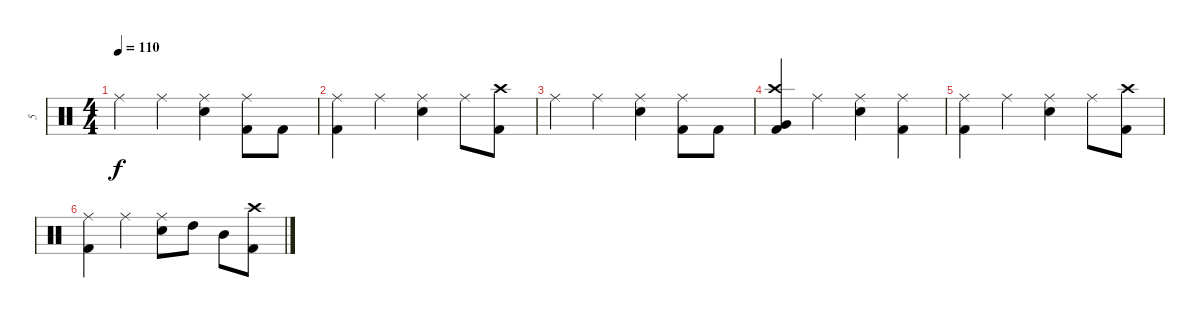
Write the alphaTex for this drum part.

\track ("5" "5") {instrument percussion}
\staff {score}
\articulation defaults
\ts (4 4)
\tempo 110
\clef neutral
\ks c "Ride (middle)".4{dy f} "Ride (middle)".4
("Ride (middle)" "Electric Snare (hit)").4 ("Ride (middle)" "Kick (hit) 2").8 "Kick (hit) 2".8 |
("Ride (middle)" "Kick (hit) 2").4 "Ride (middle)".4 ("Ride (middle)" "Electric Snare (hit)").4 "Ride (middle)".8 ("Crash high (hit)" "Kick (hit) 2").8 |
"Ride (middle)".4 "Ride (middle)".4 ("Ride (middle)" "Electric Snare (hit)").4 ("Ride (middle)" "Kick (hit) 2").8 "Kick (hit) 2".8 |
("Crash high (hit)" "Very Low Tom (hit)" "Kick (hit) 2").4 "Ride (middle)".4 ("Ride (middle)" "Electric Snare (hit)").4 ("Ride (middle)" "Kick (hit) 2").4 |
("Ride (middle)" "Kick (hit) 2").4 "Ride (middle)".4 ("Ride (middle)" "Electric Snare (hit)").4 "Ride (middle)".8 ("Crash high (hit)" "Kick (hit) 2").8 |
("Ride (middle)" "Kick (hit) 2").4 "Ride (middle)".4 ("Ride (middle)" "Electric Snare (hit)").8 "High Tom (hit)".8 "Mid Tom (hit)".8 ("Crash high (hit)" "Kick (hit) 2").8
